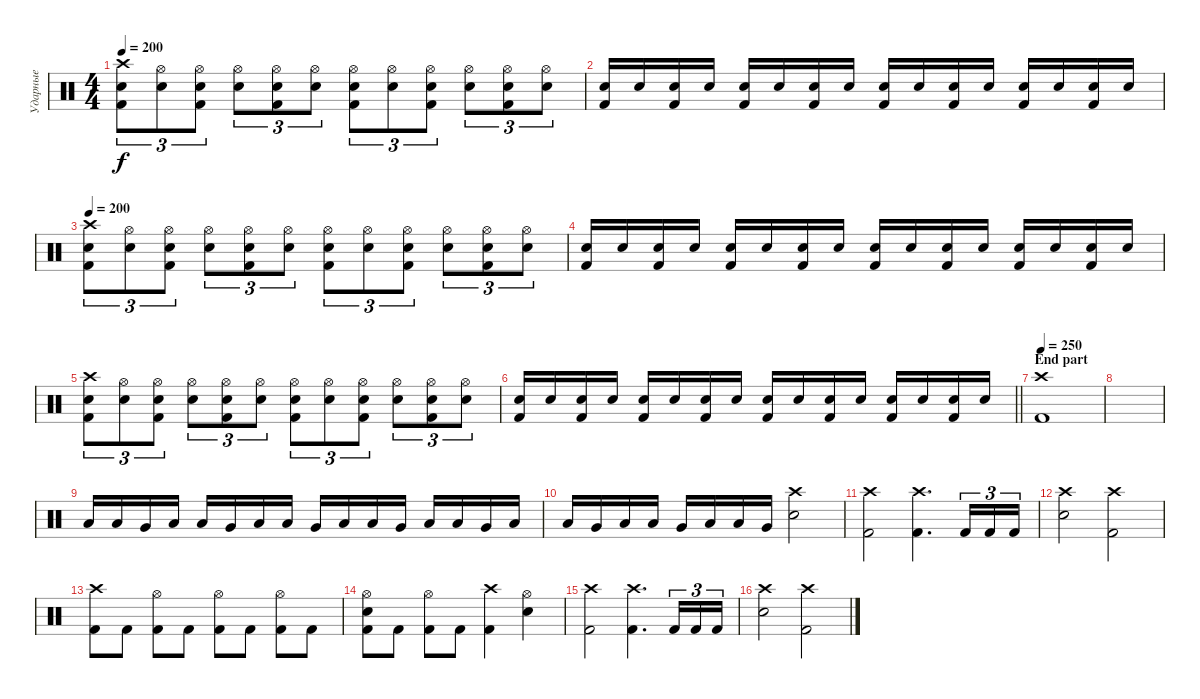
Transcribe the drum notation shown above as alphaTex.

\track ("Ударные" "Ударные") {instrument percussion}
\staff {score}
\articulation defaults
\ts (4 4)
\tempo 200
\clef neutral
\ks c
("Electric Snare (hit)" "Kick (hit) 2" "Crash high (hit)").8{tu (3 2) dy f} ("Electric Snare (hit)" "Hi-Hat (open)").8{tu (3 2)} ("Electric Snare (hit)" "Kick (hit) 2" "Hi-Hat (open)").8{tu (3 2)} ("Electric Snare (hit)" "Hi-Hat (open)").8{tu (3 2)} ("Electric Snare (hit)" "Kick (hit) 2" "Hi-Hat (open)").8{tu (3 2)} ("Electric Snare (hit)" "Hi-Hat (open)").8{tu (3 2)} ("Electric Snare (hit)" "Kick (hit) 2" "Hi-Hat (open)").8{tu (3 2)} ("Electric Snare (hit)" "Hi-Hat (open)").8{tu (3 2)} ("Electric Snare (hit)" "Kick (hit) 2" "Hi-Hat (open)").8{tu (3 2)} ("Electric Snare (hit)" "Hi-Hat (open)").8{tu (3 2)} ("Electric Snare (hit)" "Kick (hit) 2" "Hi-Hat (open)").8{tu (3 2)} ("Electric Snare (hit)" "Hi-Hat (open)").8{tu (3 2)} |
("Electric Snare (hit)" "Kick (hit) 2").16 "Electric Snare (hit)".16 ("Electric Snare (hit)" "Kick (hit) 2").16 "Electric Snare (hit)".16 ("Electric Snare (hit)" "Kick (hit) 2").16 "Electric Snare (hit)".16 ("Electric Snare (hit)" "Kick (hit) 2").16 "Electric Snare (hit)".16 ("Electric Snare (hit)" "Kick (hit) 2").16 "Electric Snare (hit)".16 ("Electric Snare (hit)" "Kick (hit) 2").16 "Electric Snare (hit)".16 ("Electric Snare (hit)" "Kick (hit) 2").16 "Electric Snare (hit)".16 ("Electric Snare (hit)" "Kick (hit) 2").16 "Electric Snare (hit)".16 |
\tempo 200
("Electric Snare (hit)" "Kick (hit) 2" "Crash high (hit)").8{tu (3 2)} ("Electric Snare (hit)" "Hi-Hat (open)").8{tu (3 2)} ("Electric Snare (hit)" "Kick (hit) 2" "Hi-Hat (open)").8{tu (3 2)} ("Electric Snare (hit)" "Hi-Hat (open)").8{tu (3 2)} ("Electric Snare (hit)" "Kick (hit) 2" "Hi-Hat (open)").8{tu (3 2)} ("Electric Snare (hit)" "Hi-Hat (open)").8{tu (3 2)} ("Electric Snare (hit)" "Kick (hit) 2" "Hi-Hat (open)").8{tu (3 2)} ("Electric Snare (hit)" "Hi-Hat (open)").8{tu (3 2)} ("Electric Snare (hit)" "Kick (hit) 2" "Hi-Hat (open)").8{tu (3 2)} ("Electric Snare (hit)" "Hi-Hat (open)").8{tu (3 2)} ("Electric Snare (hit)" "Kick (hit) 2" "Hi-Hat (open)").8{tu (3 2)} ("Electric Snare (hit)" "Hi-Hat (open)").8{tu (3 2)} |
("Electric Snare (hit)" "Kick (hit) 2").16 "Electric Snare (hit)".16 ("Electric Snare (hit)" "Kick (hit) 2").16 "Electric Snare (hit)".16 ("Electric Snare (hit)" "Kick (hit) 2").16 "Electric Snare (hit)".16 ("Electric Snare (hit)" "Kick (hit) 2").16 "Electric Snare (hit)".16 ("Electric Snare (hit)" "Kick (hit) 2").16 "Electric Snare (hit)".16 ("Electric Snare (hit)" "Kick (hit) 2").16 "Electric Snare (hit)".16 ("Electric Snare (hit)" "Kick (hit) 2").16 "Electric Snare (hit)".16 ("Electric Snare (hit)" "Kick (hit) 2").16 "Electric Snare (hit)".16 |
("Electric Snare (hit)" "Kick (hit) 2" "Crash high (hit)").8{tu (3 2)} ("Electric Snare (hit)" "Hi-Hat (open)").8{tu (3 2)} ("Electric Snare (hit)" "Kick (hit) 2" "Hi-Hat (open)").8{tu (3 2)} ("Electric Snare (hit)" "Hi-Hat (open)").8{tu (3 2)} ("Electric Snare (hit)" "Kick (hit) 2" "Hi-Hat (open)").8{tu (3 2)} ("Electric Snare (hit)" "Hi-Hat (open)").8{tu (3 2)} ("Electric Snare (hit)" "Kick (hit) 2" "Hi-Hat (open)").8{tu (3 2)} ("Electric Snare (hit)" "Hi-Hat (open)").8{tu (3 2)} ("Electric Snare (hit)" "Kick (hit) 2" "Hi-Hat (open)").8{tu (3 2)} ("Electric Snare (hit)" "Hi-Hat (open)").8{tu (3 2)} ("Electric Snare (hit)" "Kick (hit) 2" "Hi-Hat (open)").8{tu (3 2)} ("Electric Snare (hit)" "Hi-Hat (open)").8{tu (3 2)} |
\barLineRight lightlight
("Electric Snare (hit)" "Kick (hit) 2").16 "Electric Snare (hit)".16 ("Electric Snare (hit)" "Kick (hit) 2").16 "Electric Snare (hit)".16 ("Electric Snare (hit)" "Kick (hit) 2").16 "Electric Snare (hit)".16 ("Electric Snare (hit)" "Kick (hit) 2").16 "Electric Snare (hit)".16 ("Electric Snare (hit)" "Kick (hit) 2").16 "Electric Snare (hit)".16 ("Electric Snare (hit)" "Kick (hit) 2").16 "Electric Snare (hit)".16 ("Electric Snare (hit)" "Kick (hit) 2").16 "Electric Snare (hit)".16 ("Electric Snare (hit)" "Kick (hit) 2").16 "Electric Snare (hit)".16 |
\section ("" "End part")
\tempo 250
("Crash high (hit)" "Kick (hit) 2").1 |
|
"Low Tom (hit)".16 "Low Tom (hit)".16 "Very Low Tom (hit)".16 "Low Tom (hit)".16 "Low Tom (hit)".16 "Very Low Tom (hit)".16 "Low Tom (hit)".16 "Low Tom (hit)".16 "Very Low Tom (hit)".16 "Low Tom (hit)".16 "Low Tom (hit)".16 "Very Low Tom (hit)".16 "Low Tom (hit)".16 "Low Tom (hit)".16 "Very Low Tom (hit)".16 "Low Tom (hit)".16 |
"Low Tom (hit)".16 "Very Low Tom (hit)".16 "Low Tom (hit)".16 "Low Tom (hit)".16 "Very Low Tom (hit)".16 "Low Tom (hit)".16 "Low Tom (hit)".16 "Very Low Tom (hit)".16 ("Electric Snare (hit)" "Crash high (hit)").2 |
("Crash high (hit)" "Kick (hit) 2").2 ("Kick (hit) 2" "Crash high (hit)").4{d} "Kick (hit) 2".16{tu (3 2)} "Kick (hit) 2".16{tu (3 2)} "Kick (hit) 2".16{tu (3 2)} |
("Crash high (hit)" "Electric Snare (hit)").2 ("Crash high (hit)" "Kick (hit) 2").2 |
("Kick (hit) 2" "Crash high (hit)").8 "Kick (hit) 2".8 ("Kick (hit) 2" "Hi-Hat (open)").8 "Kick (hit) 2".8 ("Kick (hit) 2" "Hi-Hat (open)").8 "Kick (hit) 2".8 ("Kick (hit) 2" "Hi-Hat (open)").8 "Kick (hit) 2".8 |
("Electric Snare (hit)" "Kick (hit) 2" "Hi-Hat (open)").8 "Kick (hit) 2".8 ("Kick (hit) 2" "Hi-Hat (open)").8 "Kick (hit) 2".8 ("Kick (hit) 2" "Crash high (hit)").4 ("Electric Snare (hit)" "Hi-Hat (open)").4 |
("Crash high (hit)" "Kick (hit) 2").2 ("Kick (hit) 2" "Crash high (hit)").4{d} "Kick (hit) 2".16{tu (3 2)} "Kick (hit) 2".16{tu (3 2)} "Kick (hit) 2".16{tu (3 2)} |
("Crash high (hit)" "Electric Snare (hit)").2 ("Crash high (hit)" "Kick (hit) 2").2
